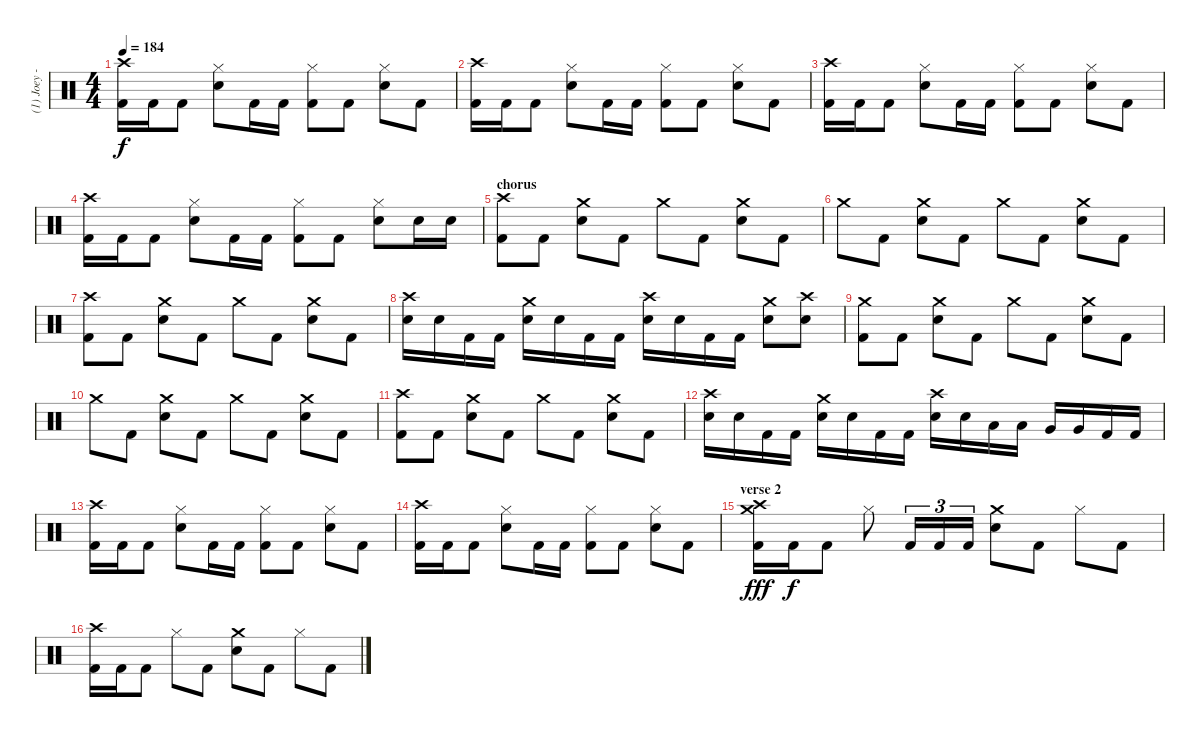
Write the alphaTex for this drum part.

\track ("(1) Joey - drums" "(1) Joey -") {instrument percussion}
\staff {score}
\articulation defaults
\ts (4 4)
\tempo 184
\clef neutral
\ks c
("Crash high (hit)" "Kick (hit) 2").16{dy f} "Kick (hit) 2".16 "Kick (hit) 2".8 ("Hi-Hat (closed)" "Electric Snare (hit)").8 "Kick (hit) 2".16 "Kick (hit) 2".16 ("Hi-Hat (closed)" "Kick (hit) 2").8 "Kick (hit) 2".8 ("Hi-Hat (closed)" "Electric Snare (hit)").8 "Kick (hit) 2".8 |
("Crash high (hit)" "Kick (hit) 2").16 "Kick (hit) 2".16 "Kick (hit) 2".8 ("Hi-Hat (closed)" "Electric Snare (hit)").8 "Kick (hit) 2".16 "Kick (hit) 2".16 ("Hi-Hat (closed)" "Kick (hit) 2").8 "Kick (hit) 2".8 ("Hi-Hat (closed)" "Electric Snare (hit)").8 "Kick (hit) 2".8 |
("Crash high (hit)" "Kick (hit) 2").16 "Kick (hit) 2".16 "Kick (hit) 2".8 ("Hi-Hat (closed)" "Electric Snare (hit)").8 "Kick (hit) 2".16 "Kick (hit) 2".16 ("Hi-Hat (closed)" "Kick (hit) 2").8 "Kick (hit) 2".8 ("Hi-Hat (closed)" "Electric Snare (hit)").8 "Kick (hit) 2".8 |
("Crash high (hit)" "Kick (hit) 2").16 "Kick (hit) 2".16 "Kick (hit) 2".8 ("Hi-Hat (closed)" "Electric Snare (hit)").8 "Kick (hit) 2".16 "Kick (hit) 2".16 ("Hi-Hat (closed)" "Kick (hit) 2").8 "Kick (hit) 2".8 ("Hi-Hat (closed)" "Electric Snare (hit)").8 "Electric Snare (hit)".16 "Electric Snare (hit)".16 |
\section ("" "chorus")
("Crash high (hit)" "Kick (hit) 2").8 "Kick (hit) 2".8 ("Crash medium (hit)" "Electric Snare (hit)").8 "Kick (hit) 2".8 "Crash medium (hit)".8 "Kick (hit) 2".8 ("Crash medium (hit)" "Electric Snare (hit)").8 "Kick (hit) 2".8 |
"Crash medium (hit)".8 "Kick (hit) 2".8 ("Crash medium (hit)" "Electric Snare (hit)").8 "Kick (hit) 2".8 "Crash medium (hit)".8 "Kick (hit) 2".8 ("Crash medium (hit)" "Electric Snare (hit)").8 "Kick (hit) 2".8 |
("Crash high (hit)" "Kick (hit) 2").8 "Kick (hit) 2".8 ("Crash medium (hit)" "Electric Snare (hit)").8 "Kick (hit) 2".8 "Crash medium (hit)".8 "Kick (hit) 2".8 ("Crash medium (hit)" "Electric Snare (hit)").8 "Kick (hit) 2".8 |
("Crash high (hit)" "Electric Snare (hit)").16 "Electric Snare (hit)".16 "Kick (hit) 2".16 "Kick (hit) 2".16 ("Crash medium (hit)" "Electric Snare (hit)").16 "Electric Snare (hit)".16 "Kick (hit) 2".16 "Kick (hit) 2".16 ("Crash high (hit)" "Electric Snare (hit)").16 "Electric Snare (hit)".16 "Kick (hit) 2".16 "Kick (hit) 2".16 ("Crash medium (hit)" "Electric Snare (hit)").8 ("Crash high (hit)" "Electric Snare (hit)").8 |
("Crash medium (hit)" "Kick (hit) 2").8 "Kick (hit) 2".8 ("Crash medium (hit)" "Electric Snare (hit)").8 "Kick (hit) 2".8 "Crash medium (hit)".8 "Kick (hit) 2".8 ("Crash medium (hit)" "Electric Snare (hit)").8 "Kick (hit) 2".8 |
"Crash medium (hit)".8 "Kick (hit) 2".8 ("Crash medium (hit)" "Electric Snare (hit)").8 "Kick (hit) 2".8 "Crash medium (hit)".8 "Kick (hit) 2".8 ("Crash medium (hit)" "Electric Snare (hit)").8 "Kick (hit) 2".8 |
("Crash high (hit)" "Kick (hit) 2").8 "Kick (hit) 2".8 ("Crash medium (hit)" "Electric Snare (hit)").8 "Kick (hit) 2".8 "Crash medium (hit)".8 "Kick (hit) 2".8 ("Crash medium (hit)" "Electric Snare (hit)").8 "Kick (hit) 2".8 |
("Crash high (hit)" "Electric Snare (hit)").16 "Electric Snare (hit)".16 "Kick (hit) 2".16 "Kick (hit) 2".16 ("Crash medium (hit)" "Electric Snare (hit)").16 "Electric Snare (hit)".16 "Kick (hit) 2".16 "Kick (hit) 2".16 ("Crash high (hit)" "Electric Snare (hit)").16 "Electric Snare (hit)".16 "Low Tom (hit)".16 "Low Tom (hit)".16 "Very Low Tom (hit)".16 "Very Low Tom (hit)".16 "Kick (hit) 2".16 "Kick (hit) 2".16 |
("Crash high (hit)" "Kick (hit) 2").16 "Kick (hit) 2".16 "Kick (hit) 2".8 ("Hi-Hat (closed)" "Electric Snare (hit)").8 "Kick (hit) 2".16 "Kick (hit) 2".16 ("Hi-Hat (closed)" "Kick (hit) 2").8 "Kick (hit) 2".8 ("Hi-Hat (closed)" "Electric Snare (hit)").8 "Kick (hit) 2".8 |
("Crash high (hit)" "Kick (hit) 2").16 "Kick (hit) 2".16 "Kick (hit) 2".8 ("Hi-Hat (closed)" "Electric Snare (hit)").8 "Kick (hit) 2".16 "Kick (hit) 2".16 ("Hi-Hat (closed)" "Kick (hit) 2").8 "Kick (hit) 2".8 ("Hi-Hat (closed)" "Electric Snare (hit)").8 "Kick (hit) 2".8 |
\section ("" "verse 2")
("Crash high (hit)" "Crash medium (hit)" "Kick (hit) 2").16{dy fff} "Kick (hit) 2".16{dy f} "Kick (hit) 2".8 "Hi-Hat (closed)".8 "Kick (hit) 2".16{tu (3 2)} "Kick (hit) 2".16{tu (3 2)} "Kick (hit) 2".16{tu (3 2)} ("Crash medium (hit)" "Electric Snare (hit)").8 "Kick (hit) 2".8 "Hi-Hat (closed)".8 "Kick (hit) 2".8 |
("Crash high (hit)" "Kick (hit) 2").16 "Kick (hit) 2".16 "Kick (hit) 2".8 "Hi-Hat (closed)".8 "Kick (hit) 2".8 ("Crash medium (hit)" "Electric Snare (hit)").8 "Kick (hit) 2".8 "Hi-Hat (closed)".8 "Kick (hit) 2".8
